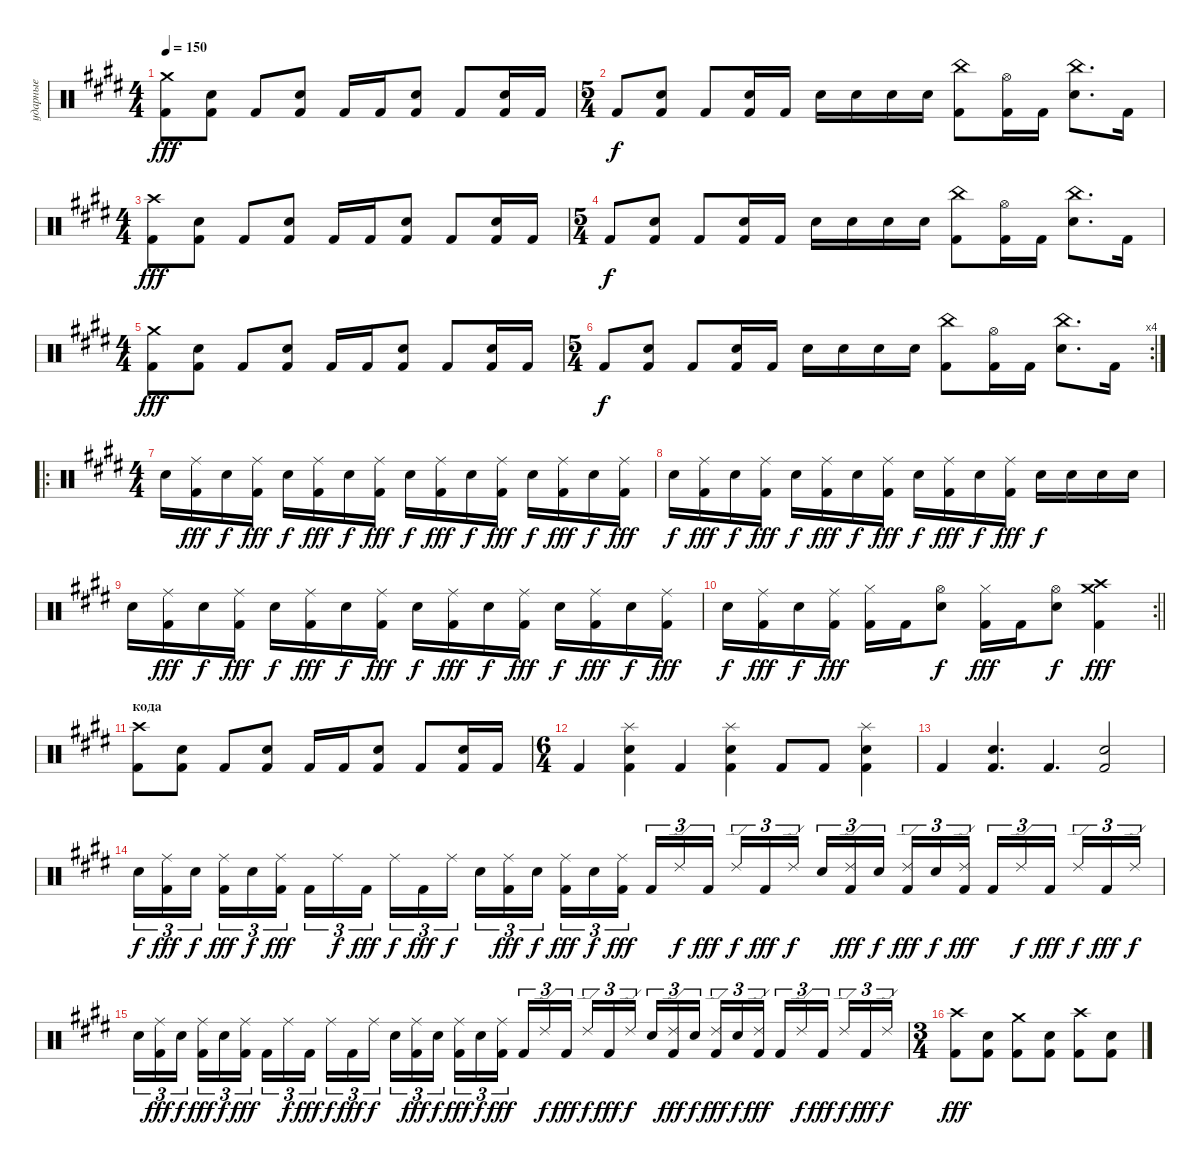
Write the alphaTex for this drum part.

\track ("ударные" "ударные") {instrument percussion}
\staff {score}
\articulation defaults
\ts (4 4)
\tempo 150
\clef neutral
\ks c#minor
("Crash medium (hit)" "Kick (hit) 2").8{dy fff} ("Electric Snare (hit)" "Kick (hit) 2").8 "Kick (hit) 2".8 ("Electric Snare (hit)" "Kick (hit) 2").8 "Kick (hit) 2".16 "Kick (hit) 2".16 ("Electric Snare (hit)" "Kick (hit) 2").8 "Kick (hit) 2".8 ("Electric Snare (hit)" "Kick (hit) 2").16 "Kick (hit) 2".16 |
\ts (5 4)
"Kick (hit) 2".8{dy f} ("Kick (hit) 2" "Electric Snare (hit)").8 "Kick (hit) 2".8 ("Kick (hit) 2" "Electric Snare (hit)").16 "Kick (hit) 2".16 "Electric Snare (hit)".16 "Electric Snare (hit)".16 "Electric Snare (hit)".16 "Electric Snare (hit)".16 ("Kick (hit) 2" "China (hit)").8 ("Kick (hit) 2" "Hi-Hat (open)").16 "Kick (hit) 2".16 ("Electric Snare (hit)" "China (hit)").8{d} "Kick (hit) 2".16 |
\ts (4 4)
("Crash high (hit)" "Kick (hit) 2").8{dy fff} ("Electric Snare (hit)" "Kick (hit) 2").8 "Kick (hit) 2".8 ("Electric Snare (hit)" "Kick (hit) 2").8 "Kick (hit) 2".16 "Kick (hit) 2".16 ("Electric Snare (hit)" "Kick (hit) 2").8 "Kick (hit) 2".8 ("Electric Snare (hit)" "Kick (hit) 2").16 "Kick (hit) 2".16 |
\ts (5 4)
"Kick (hit) 2".8{dy f} ("Kick (hit) 2" "Electric Snare (hit)").8 "Kick (hit) 2".8 ("Kick (hit) 2" "Electric Snare (hit)").16 "Kick (hit) 2".16 "Electric Snare (hit)".16 "Electric Snare (hit)".16 "Electric Snare (hit)".16 "Electric Snare (hit)".16 ("Kick (hit) 2" "China (hit)").8 ("Kick (hit) 2" "Hi-Hat (open)").16 "Kick (hit) 2".16 ("Electric Snare (hit)" "China (hit)").8{d} "Kick (hit) 2".16 |
\ts (4 4)
("Crash medium (hit)" "Kick (hit) 2").8{dy fff} ("Electric Snare (hit)" "Kick (hit) 2").8 "Kick (hit) 2".8 ("Electric Snare (hit)" "Kick (hit) 2").8 "Kick (hit) 2".16 "Kick (hit) 2".16 ("Electric Snare (hit)" "Kick (hit) 2").8 "Kick (hit) 2".8 ("Electric Snare (hit)" "Kick (hit) 2").16 "Kick (hit) 2".16 |
\rc 4
\ts (5 4)
"Kick (hit) 2".8{dy f} ("Kick (hit) 2" "Electric Snare (hit)").8 "Kick (hit) 2".8 ("Kick (hit) 2" "Electric Snare (hit)").16 "Kick (hit) 2".16 "Electric Snare (hit)".16 "Electric Snare (hit)".16 "Electric Snare (hit)".16 "Electric Snare (hit)".16 ("Kick (hit) 2" "China (hit)").8 ("Kick (hit) 2" "Hi-Hat (open)").16 "Kick (hit) 2".16 ("Electric Snare (hit)" "China (hit)").8{d} "Kick (hit) 2".16 |
\ro
\ts (4 4)
"Electric Snare (hit)".16 ("Ride (middle)" "Kick (hit) 2").16{dy fff} "Electric Snare (hit)".16{dy f} ("Ride (middle)" "Kick (hit) 2").16{dy fff} "Electric Snare (hit)".16{dy f} ("Ride (middle)" "Kick (hit) 2").16{dy fff} "Electric Snare (hit)".16{dy f} ("Ride (middle)" "Kick (hit) 2").16{dy fff} "Electric Snare (hit)".16{dy f} ("Ride (middle)" "Kick (hit) 2").16{dy fff} "Electric Snare (hit)".16{dy f} ("Ride (middle)" "Kick (hit) 2").16{dy fff} "Electric Snare (hit)".16{dy f} ("Ride (middle)" "Kick (hit) 2").16{dy fff} "Electric Snare (hit)".16{dy f} ("Ride (middle)" "Kick (hit) 2").16{dy fff} |
"Electric Snare (hit)".16{dy f} ("Ride (middle)" "Kick (hit) 2").16{dy fff} "Electric Snare (hit)".16{dy f} ("Ride (middle)" "Kick (hit) 2").16{dy fff} "Electric Snare (hit)".16{dy f} ("Ride (middle)" "Kick (hit) 2").16{dy fff} "Electric Snare (hit)".16{dy f} ("Ride (middle)" "Kick (hit) 2").16{dy fff} "Electric Snare (hit)".16{dy f} ("Ride (middle)" "Kick (hit) 2").16{dy fff} "Electric Snare (hit)".16{dy f} ("Ride (middle)" "Kick (hit) 2").16{dy fff} "Electric Snare (hit)".16{dy f} "Electric Snare (hit)".16 "Electric Snare (hit)".16 "Electric Snare (hit)".16 |
"Electric Snare (hit)".16 ("Ride (middle)" "Kick (hit) 2").16{dy fff} "Electric Snare (hit)".16{dy f} ("Ride (middle)" "Kick (hit) 2").16{dy fff} "Electric Snare (hit)".16{dy f} ("Ride (middle)" "Kick (hit) 2").16{dy fff} "Electric Snare (hit)".16{dy f} ("Ride (middle)" "Kick (hit) 2").16{dy fff} "Electric Snare (hit)".16{dy f} ("Ride (middle)" "Kick (hit) 2").16{dy fff} "Electric Snare (hit)".16{dy f} ("Ride (middle)" "Kick (hit) 2").16{dy fff} "Electric Snare (hit)".16{dy f} ("Ride (middle)" "Kick (hit) 2").16{dy fff} "Electric Snare (hit)".16{dy f} ("Ride (middle)" "Kick (hit) 2").16{dy fff} |
\rc 2
\barLineRight lightlight "Electric Snare (hit)".16{dy f}
("Ride (middle)" "Kick (hit) 2").16{dy fff} "Electric Snare (hit)".16{dy f} ("Ride (middle)" "Kick (hit) 2").16{dy fff} ("Hi-Hat (closed)" "Kick (hit) 2").16 "Kick (hit) 2".16 ("Hi-Hat (open)" "Electric Snare (hit)").8{dy f} ("Hi-Hat (closed)" "Kick (hit) 2").16{dy fff} "Kick (hit) 2".16 ("Hi-Hat (open)" "Electric Snare (hit)").8{dy f} ("Crash medium (hit)" "Crash high (hit)" "Kick (hit) 2").4{dy fff} |
\section ("" "кода")
("Crash high (hit)" "Kick (hit) 2").8 ("Electric Snare (hit)" "Kick (hit) 2").8 "Kick (hit) 2".8 ("Electric Snare (hit)" "Kick (hit) 2").8 "Kick (hit) 2".16 "Kick (hit) 2".16 ("Electric Snare (hit)" "Kick (hit) 2").8 "Kick (hit) 2".8 ("Electric Snare (hit)" "Kick (hit) 2").16 "Kick (hit) 2".16 |
\ts (6 4)
"Kick (hit) 2".4 ("Splash (hit)" "Electric Snare (hit)" "Kick (hit) 2").4 "Kick (hit) 2".4 ("Splash (hit)" "Electric Snare (hit)" "Kick (hit) 2").4 "Kick (hit) 2".8 "Kick (hit) 2".8 ("Splash (hit)" "Electric Snare (hit)" "Kick (hit) 2").4 |
"Kick (hit) 2".4 ("Electric Snare (hit)" "Kick (hit) 2").4{d} "Kick (hit) 2".4{d} ("Electric Snare (hit)" "Kick (hit) 2").2 |
"Electric Snare (hit)".16{tu (3 2) dy f} ("Ride (middle)" "Kick (hit) 2").16{tu (3 2) dy fff} "Electric Snare (hit)".16{tu (3 2) dy f beam splitsecondary} ("Ride (middle)" "Kick (hit) 2").16{tu (3 2) dy fff} "Electric Snare (hit)".16{tu (3 2) dy f} ("Ride (middle)" "Kick (hit) 2").16{tu (3 2) dy fff beam splitsecondary} "Kick (hit) 2".16{tu (3 2)} "Ride (middle)".16{tu (3 2) dy f} "Kick (hit) 2".16{tu (3 2) dy fff beam splitsecondary} "Ride (middle)".16{tu (3 2) dy f} "Kick (hit) 2".16{tu (3 2) dy fff} "Ride (middle)".16{tu (3 2) dy f beam splitsecondary} "Electric Snare (hit)".16{tu (3 2)} ("Ride (middle)" "Kick (hit) 2").16{tu (3 2) dy fff} "Electric Snare (hit)".16{tu (3 2) dy f beam splitsecondary} ("Ride (middle)" "Kick (hit) 2").16{tu (3 2) dy fff} "Electric Snare (hit)".16{tu (3 2) dy f} ("Ride (middle)" "Kick (hit) 2").16{tu (3 2) dy fff} "Kick (hit) 2".16{tu (3 2)} "Ride (edge) 2".16{tu (3 2) dy f} "Kick (hit) 2".16{tu (3 2) dy fff beam splitsecondary} "Ride (edge) 2".16{tu (3 2) dy f} "Kick (hit) 2".16{tu (3 2) dy fff} "Ride (edge) 2".16{tu (3 2) dy f beam splitsecondary} "Electric Snare (hit)".16{tu (3 2)} ("Ride (edge) 2" "Kick (hit) 2").16{tu (3 2) dy fff} "Electric Snare (hit)".16{tu (3 2) dy f beam splitsecondary} ("Ride (edge) 2" "Kick (hit) 2").16{tu (3 2) dy fff} "Electric Snare (hit)".16{tu (3 2) dy f} ("Ride (edge) 2" "Kick (hit) 2").16{tu (3 2) dy fff beam splitsecondary} "Kick (hit) 2".16{tu (3 2)} "Ride (edge) 2".16{tu (3 2) dy f} "Kick (hit) 2".16{tu (3 2) dy fff beam splitsecondary} "Ride (edge) 2".16{tu (3 2) dy f} "Kick (hit) 2".16{tu (3 2) dy fff} "Ride (edge) 2".16{tu (3 2) dy f} |
"Electric Snare (hit)".16{tu (3 2)} ("Ride (middle)" "Kick (hit) 2").16{tu (3 2) dy fff} "Electric Snare (hit)".16{tu (3 2) dy f beam splitsecondary} ("Ride (middle)" "Kick (hit) 2").16{tu (3 2) dy fff} "Electric Snare (hit)".16{tu (3 2) dy f} ("Ride (middle)" "Kick (hit) 2").16{tu (3 2) dy fff beam splitsecondary} "Kick (hit) 2".16{tu (3 2)} "Ride (middle)".16{tu (3 2) dy f} "Kick (hit) 2".16{tu (3 2) dy fff beam splitsecondary} "Ride (middle)".16{tu (3 2) dy f} "Kick (hit) 2".16{tu (3 2) dy fff} "Ride (middle)".16{tu (3 2) dy f beam splitsecondary} "Electric Snare (hit)".16{tu (3 2)} ("Ride (middle)" "Kick (hit) 2").16{tu (3 2) dy fff} "Electric Snare (hit)".16{tu (3 2) dy f beam splitsecondary} ("Ride (middle)" "Kick (hit) 2").16{tu (3 2) dy fff} "Electric Snare (hit)".16{tu (3 2) dy f} ("Ride (middle)" "Kick (hit) 2").16{tu (3 2) dy fff} "Kick (hit) 2".16{tu (3 2)} "Ride (edge) 2".16{tu (3 2) dy f} "Kick (hit) 2".16{tu (3 2) dy fff beam splitsecondary} "Ride (edge) 2".16{tu (3 2) dy f} "Kick (hit) 2".16{tu (3 2) dy fff} "Ride (edge) 2".16{tu (3 2) dy f beam splitsecondary} "Electric Snare (hit)".16{tu (3 2)} ("Ride (edge) 2" "Kick (hit) 2").16{tu (3 2) dy fff} "Electric Snare (hit)".16{tu (3 2) dy f beam splitsecondary} ("Ride (edge) 2" "Kick (hit) 2").16{tu (3 2) dy fff} "Electric Snare (hit)".16{tu (3 2) dy f} ("Ride (edge) 2" "Kick (hit) 2").16{tu (3 2) dy fff beam splitsecondary} "Kick (hit) 2".16{tu (3 2)} "Ride (edge) 2".16{tu (3 2) dy f} "Kick (hit) 2".16{tu (3 2) dy fff beam splitsecondary} "Ride (edge) 2".16{tu (3 2) dy f} "Kick (hit) 2".16{tu (3 2) dy fff} "Ride (edge) 2".16{tu (3 2) dy f} |
\ts (3 4)
("Crash high (hit)" "Kick (hit) 2").8{dy fff} ("Electric Snare (hit)" "Kick (hit) 2").8 ("Crash medium (hit)" "Kick (hit) 2").8 ("Electric Snare (hit)" "Kick (hit) 2").8 ("Crash high (hit)" "Kick (hit) 2").8 ("Electric Snare (hit)" "Kick (hit) 2").8
